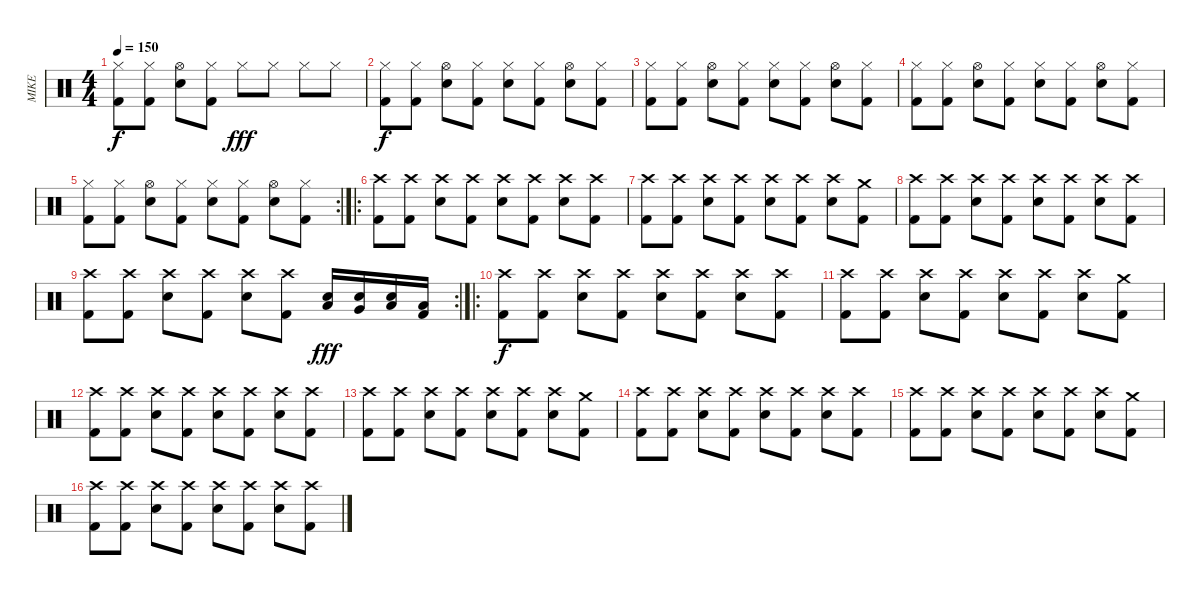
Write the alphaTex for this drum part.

\track ("MIKE" "MIKE") {instrument percussion}
\staff {score}
\articulation defaults
\ts (4 4)
\tempo 150
\clef neutral
\ks c
("Hi-Hat (closed)" "Kick (hit) 2").8{dy f} ("Hi-Hat (closed)" "Kick (hit) 2").8 ("Hi-Hat (open)" "Snare (hit) 2").8 ("Hi-Hat (closed)" "Kick (hit) 2").8 "Hi-Hat (closed)".8{dy fff} "Hi-Hat (closed)".8 "Hi-Hat (closed)".8 "Hi-Hat (closed)".8 |
("Hi-Hat (closed)" "Kick (hit) 2").8{dy f} ("Hi-Hat (closed)" "Kick (hit) 2").8 ("Hi-Hat (open)" "Snare (hit) 2").8 ("Hi-Hat (closed)" "Kick (hit) 2").8 ("Hi-Hat (closed)" "Snare (hit) 2").8 ("Hi-Hat (closed)" "Kick (hit) 2").8 ("Hi-Hat (open)" "Snare (hit) 2").8 ("Hi-Hat (closed)" "Kick (hit) 2").8 |
("Hi-Hat (closed)" "Kick (hit) 2").8 ("Hi-Hat (closed)" "Kick (hit) 2").8 ("Hi-Hat (open)" "Snare (hit) 2").8 ("Hi-Hat (closed)" "Kick (hit) 2").8 ("Hi-Hat (closed)" "Snare (hit) 2").8 ("Hi-Hat (closed)" "Kick (hit) 2").8 ("Hi-Hat (open)" "Snare (hit) 2").8 ("Hi-Hat (closed)" "Kick (hit) 2").8 |
("Hi-Hat (closed)" "Kick (hit) 2").8 ("Hi-Hat (closed)" "Kick (hit) 2").8 ("Hi-Hat (open)" "Snare (hit) 2").8 ("Hi-Hat (closed)" "Kick (hit) 2").8 ("Hi-Hat (closed)" "Snare (hit) 2").8 ("Hi-Hat (closed)" "Kick (hit) 2").8 ("Hi-Hat (open)" "Snare (hit) 2").8 ("Hi-Hat (closed)" "Kick (hit) 2").8 |
\rc 2
("Hi-Hat (closed)" "Kick (hit) 2").8 ("Hi-Hat (closed)" "Kick (hit) 2").8 ("Hi-Hat (open)" "Snare (hit) 2").8 ("Hi-Hat (closed)" "Kick (hit) 2").8 ("Hi-Hat (closed)" "Snare (hit) 2").8 ("Hi-Hat (closed)" "Kick (hit) 2").8 ("Hi-Hat (open)" "Snare (hit) 2").8 ("Hi-Hat (closed)" "Kick (hit) 2").8 |
\ro
("Crash high (hit)" "Kick (hit) 2").8 ("Crash high (hit)" "Kick (hit) 2").8 ("Crash high (hit)" "Snare (hit) 2").8 ("Crash high (hit)" "Kick (hit) 2").8 ("Crash high (hit)" "Snare (hit) 2").8 ("Crash high (hit)" "Kick (hit) 2").8 ("Crash high (hit)" "Snare (hit) 2").8 ("Crash high (hit)" "Kick (hit) 2").8 |
("Crash high (hit)" "Kick (hit) 2").8 ("Crash high (hit)" "Kick (hit) 2").8 ("Crash high (hit)" "Snare (hit) 2").8 ("Crash high (hit)" "Kick (hit) 2").8 ("Crash high (hit)" "Snare (hit) 2").8 ("Crash high (hit)" "Kick (hit) 2").8 ("Crash high (hit)" "Snare (hit) 2").8 ("Crash medium (hit)" "Kick (hit) 2").8 |
("Crash high (hit)" "Kick (hit) 2").8 ("Crash high (hit)" "Kick (hit) 2").8 ("Crash high (hit)" "Snare (hit) 2").8 ("Crash high (hit)" "Kick (hit) 2").8 ("Crash high (hit)" "Snare (hit) 2").8 ("Crash high (hit)" "Kick (hit) 2").8 ("Crash high (hit)" "Snare (hit) 2").8 ("Crash high (hit)" "Kick (hit) 2").8 |
\rc 2
("Crash high (hit)" "Kick (hit) 2").8 ("Crash high (hit)" "Kick (hit) 2").8 ("Crash high (hit)" "Snare (hit) 2").8 ("Crash high (hit)" "Kick (hit) 2").8 ("Crash high (hit)" "Snare (hit) 2").8 ("Crash high (hit)" "Kick (hit) 2").8 ("Low Tom (hit)" "Snare (hit) 2").16{dy fff} ("Very Low Tom (hit)" "Snare (hit) 2").16 ("Low Floor Tom (hit)" "Snare (hit) 2").16 ("Low Floor Tom (hit)" "Kick (hit) 2").16 |
\ro
("Crash high (hit)" "Kick (hit) 2").8{dy f} ("Crash high (hit)" "Kick (hit) 2").8 ("Crash high (hit)" "Snare (hit) 2").8 ("Crash high (hit)" "Kick (hit) 2").8 ("Crash high (hit)" "Snare (hit) 2").8 ("Crash high (hit)" "Kick (hit) 2").8 ("Crash high (hit)" "Snare (hit) 2").8 ("Crash high (hit)" "Kick (hit) 2").8 |
("Crash high (hit)" "Kick (hit) 2").8 ("Crash high (hit)" "Kick (hit) 2").8 ("Crash high (hit)" "Snare (hit) 2").8 ("Crash high (hit)" "Kick (hit) 2").8 ("Crash high (hit)" "Snare (hit) 2").8 ("Crash high (hit)" "Kick (hit) 2").8 ("Crash high (hit)" "Snare (hit) 2").8 ("Crash medium (hit)" "Kick (hit) 2").8 |
("Crash high (hit)" "Kick (hit) 2").8 ("Crash high (hit)" "Kick (hit) 2").8 ("Crash high (hit)" "Snare (hit) 2").8 ("Crash high (hit)" "Kick (hit) 2").8 ("Crash high (hit)" "Snare (hit) 2").8 ("Crash high (hit)" "Kick (hit) 2").8 ("Crash high (hit)" "Snare (hit) 2").8 ("Crash high (hit)" "Kick (hit) 2").8 |
("Crash high (hit)" "Kick (hit) 2").8 ("Crash high (hit)" "Kick (hit) 2").8 ("Crash high (hit)" "Snare (hit) 2").8 ("Crash high (hit)" "Kick (hit) 2").8 ("Crash high (hit)" "Snare (hit) 2").8 ("Crash high (hit)" "Kick (hit) 2").8 ("Crash high (hit)" "Snare (hit) 2").8 ("Crash medium (hit)" "Kick (hit) 2").8 |
("Crash high (hit)" "Kick (hit) 2").8 ("Crash high (hit)" "Kick (hit) 2").8 ("Crash high (hit)" "Snare (hit) 2").8 ("Crash high (hit)" "Kick (hit) 2").8 ("Crash high (hit)" "Snare (hit) 2").8 ("Crash high (hit)" "Kick (hit) 2").8 ("Crash high (hit)" "Snare (hit) 2").8 ("Crash high (hit)" "Kick (hit) 2").8 |
("Crash high (hit)" "Kick (hit) 2").8 ("Crash high (hit)" "Kick (hit) 2").8 ("Crash high (hit)" "Snare (hit) 2").8 ("Crash high (hit)" "Kick (hit) 2").8 ("Crash high (hit)" "Snare (hit) 2").8 ("Crash high (hit)" "Kick (hit) 2").8 ("Crash high (hit)" "Snare (hit) 2").8 ("Crash medium (hit)" "Kick (hit) 2").8 |
("Crash high (hit)" "Kick (hit) 2").8 ("Crash high (hit)" "Kick (hit) 2").8 ("Crash high (hit)" "Snare (hit) 2").8 ("Crash high (hit)" "Kick (hit) 2").8 ("Crash high (hit)" "Snare (hit) 2").8 ("Crash high (hit)" "Kick (hit) 2").8 ("Crash high (hit)" "Snare (hit) 2").8 ("Crash high (hit)" "Kick (hit) 2").8
